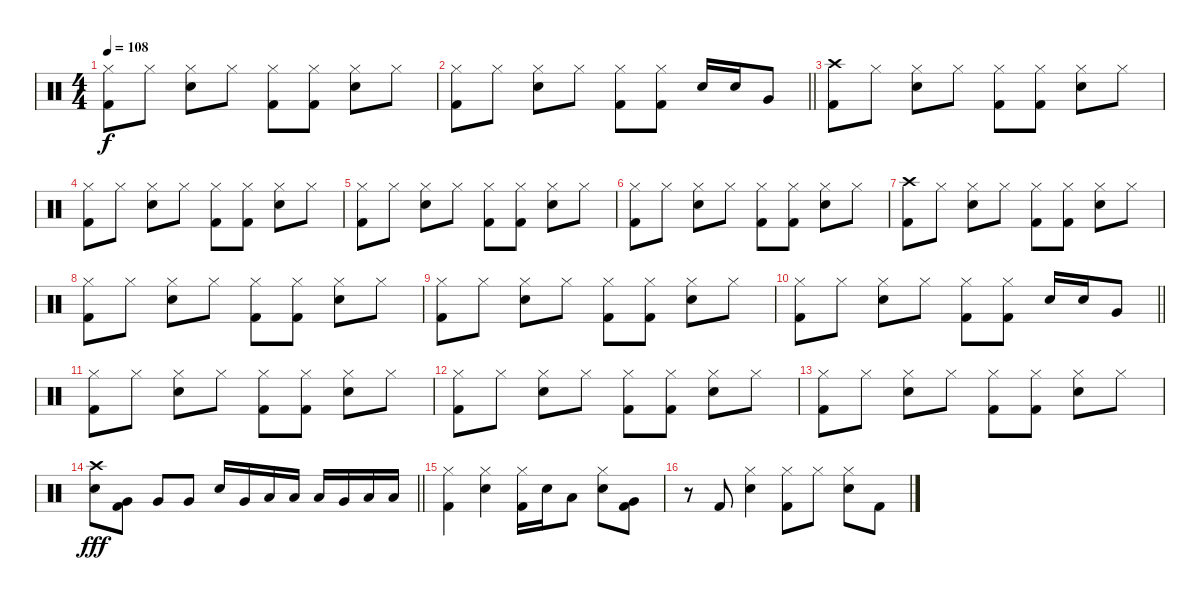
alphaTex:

\track "" {instrument percussion}
\staff {score}
\articulation defaults
\ts (4 4)
\tempo 108
\clef neutral
\ks c
("Kick (hit) 2" "Hi-Hat (closed)").8{dy f} "Hi-Hat (closed)".8 ("Electric Snare (hit)" "Hi-Hat (closed)").8 "Hi-Hat (closed)".8 ("Kick (hit) 2" "Hi-Hat (closed)").8 ("Hi-Hat (closed)" "Kick (hit) 2").8 ("Electric Snare (hit)" "Hi-Hat (closed)").8 "Hi-Hat (closed)".8 |
\barLineRight lightlight
("Kick (hit) 2" "Hi-Hat (closed)").8 "Hi-Hat (closed)".8 ("Electric Snare (hit)" "Hi-Hat (closed)").8 "Hi-Hat (closed)".8 ("Kick (hit) 2" "Hi-Hat (closed)").8 ("Hi-Hat (closed)" "Kick (hit) 2").8 "Electric Snare (hit)".16 "Electric Snare (hit)".16 "Very Low Tom (hit)".8 |
("Crash high (hit)" "Kick (hit) 2").8 "Hi-Hat (closed)".8 ("Electric Snare (hit)" "Hi-Hat (closed)").8 "Hi-Hat (closed)".8 ("Kick (hit) 2" "Hi-Hat (closed)").8 ("Hi-Hat (closed)" "Kick (hit) 2").8 ("Electric Snare (hit)" "Hi-Hat (closed)").8 "Hi-Hat (closed)".8 |
("Kick (hit) 2" "Hi-Hat (closed)").8 "Hi-Hat (closed)".8 ("Electric Snare (hit)" "Hi-Hat (closed)").8 "Hi-Hat (closed)".8 ("Kick (hit) 2" "Hi-Hat (closed)").8 ("Hi-Hat (closed)" "Kick (hit) 2").8 ("Electric Snare (hit)" "Hi-Hat (closed)").8 "Hi-Hat (closed)".8 |
("Kick (hit) 2" "Hi-Hat (closed)").8 "Hi-Hat (closed)".8 ("Electric Snare (hit)" "Hi-Hat (closed)").8 "Hi-Hat (closed)".8 ("Kick (hit) 2" "Hi-Hat (closed)").8 ("Hi-Hat (closed)" "Kick (hit) 2").8 ("Electric Snare (hit)" "Hi-Hat (closed)").8 "Hi-Hat (closed)".8 |
("Kick (hit) 2" "Hi-Hat (closed)").8 "Hi-Hat (closed)".8 ("Electric Snare (hit)" "Hi-Hat (closed)").8 "Hi-Hat (closed)".8 ("Kick (hit) 2" "Hi-Hat (closed)").8 ("Hi-Hat (closed)" "Kick (hit) 2").8 ("Electric Snare (hit)" "Hi-Hat (closed)").8 "Hi-Hat (closed)".8 |
("Crash high (hit)" "Kick (hit) 2").8 "Hi-Hat (closed)".8 ("Electric Snare (hit)" "Hi-Hat (closed)").8 "Hi-Hat (closed)".8 ("Kick (hit) 2" "Hi-Hat (closed)").8 ("Hi-Hat (closed)" "Kick (hit) 2").8 ("Electric Snare (hit)" "Hi-Hat (closed)").8 "Hi-Hat (closed)".8 |
("Kick (hit) 2" "Hi-Hat (closed)").8 "Hi-Hat (closed)".8 ("Electric Snare (hit)" "Hi-Hat (closed)").8 "Hi-Hat (closed)".8 ("Kick (hit) 2" "Hi-Hat (closed)").8 ("Hi-Hat (closed)" "Kick (hit) 2").8 ("Electric Snare (hit)" "Hi-Hat (closed)").8 "Hi-Hat (closed)".8 |
("Kick (hit) 2" "Hi-Hat (closed)").8 "Hi-Hat (closed)".8 ("Electric Snare (hit)" "Hi-Hat (closed)").8 "Hi-Hat (closed)".8 ("Kick (hit) 2" "Hi-Hat (closed)").8 ("Hi-Hat (closed)" "Kick (hit) 2").8 ("Electric Snare (hit)" "Hi-Hat (closed)").8 "Hi-Hat (closed)".8 |
\barLineRight lightlight
("Kick (hit) 2" "Hi-Hat (closed)").8 "Hi-Hat (closed)".8 ("Electric Snare (hit)" "Hi-Hat (closed)").8 "Hi-Hat (closed)".8 ("Kick (hit) 2" "Hi-Hat (closed)").8 ("Hi-Hat (closed)" "Kick (hit) 2").8 "Electric Snare (hit)".16 "Electric Snare (hit)".16 "Very Low Tom (hit)".8 |
("Kick (hit) 2" "Hi-Hat (closed)").8 "Hi-Hat (closed)".8 ("Electric Snare (hit)" "Hi-Hat (closed)").8 "Hi-Hat (closed)".8 ("Kick (hit) 2" "Hi-Hat (closed)").8 ("Hi-Hat (closed)" "Kick (hit) 2").8 ("Electric Snare (hit)" "Hi-Hat (closed)").8 "Hi-Hat (closed)".8 |
("Kick (hit) 2" "Hi-Hat (closed)").8 "Hi-Hat (closed)".8 ("Electric Snare (hit)" "Hi-Hat (closed)").8 "Hi-Hat (closed)".8 ("Kick (hit) 2" "Hi-Hat (closed)").8 ("Hi-Hat (closed)" "Kick (hit) 2").8 ("Electric Snare (hit)" "Hi-Hat (closed)").8 "Hi-Hat (closed)".8 |
("Kick (hit) 2" "Hi-Hat (closed)").8 "Hi-Hat (closed)".8 ("Electric Snare (hit)" "Hi-Hat (closed)").8 "Hi-Hat (closed)".8 ("Kick (hit) 2" "Hi-Hat (closed)").8 ("Hi-Hat (closed)" "Kick (hit) 2").8 ("Electric Snare (hit)" "Hi-Hat (closed)").8 "Hi-Hat (closed)".8 |
\barLineRight lightlight
("Crash high (hit)" "Electric Snare (hit)").8{dy fff} ("Kick (hit) 2" "Very Low Tom (hit)").8 "Very Low Tom (hit)".8 "Very Low Tom (hit)".8 "Electric Snare (hit)".16 "Very Low Tom (hit)".16 "Low Floor Tom (hit)".16 "Low Floor Tom (hit)".16 "Low Tom (hit)".16 "Very Low Tom (hit)".16 "Low Floor Tom (hit)".16 "Low Floor Tom (hit)".16 |
\section ("" "")
("Hi-Hat (closed)" "Kick (hit) 2").4 ("Hi-Hat (closed)" "Electric Snare (hit)").4 ("Hi-Hat (closed)" "Kick (hit) 2").16 "Electric Snare (hit)".16 "Low Floor Tom (hit)".8 ("Electric Snare (hit)" "Hi-Hat (closed)").8 ("Very Low Tom (hit)" "Kick (hit) 2").8 |
r.8 "Kick (hit) 2".8 ("Electric Snare (hit)" "Hi-Hat (closed)").4 ("Kick (hit) 2" "Hi-Hat (closed)").8 "Hi-Hat (closed)".8 ("Hi-Hat (closed)" "Electric Snare (hit)").8 "Kick (hit) 2".8
